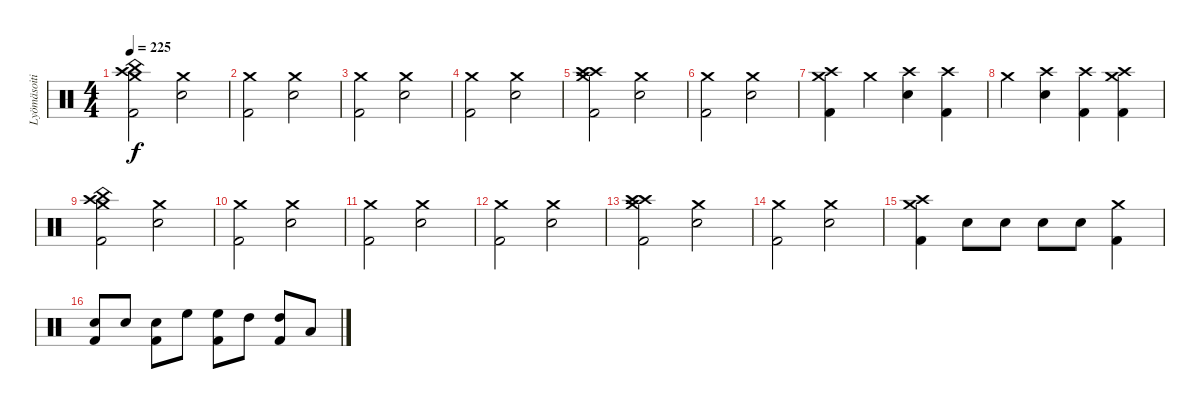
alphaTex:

\track ("Lyömäsoitin" "Lyömäsoiti") {instrument percussion}
\staff {score}
\articulation defaults
\ts (4 4)
\tempo 225
\clef neutral
\ks c
("Crash high (hit)" "China (hit)" "Crash medium (hit)" "Kick (hit) 2").2{dy f} ("Crash medium (hit)" "Snare (hit) 2").2 |
("Crash medium (hit)" "Kick (hit) 2").2 ("Crash medium (hit)" "Snare (hit) 2").2 |
("Crash medium (hit)" "Kick (hit) 2").2 ("Crash medium (hit)" "Snare (hit) 2").2 |
("Crash medium (hit)" "Kick (hit) 2").2 ("Crash medium (hit)" "Snare (hit) 2").2 |
("Crash high (hit)" "Crash high (hit)" "Crash medium (hit)" "Kick (hit) 2").2 ("Crash medium (hit)" "Snare (hit) 2").2 |
("Crash medium (hit)" "Kick (hit) 2").2 ("Crash medium (hit)" "Snare (hit) 2").2 |
("Crash high (hit)" "Crash medium (hit)" "Kick (hit) 2").4 "Crash medium (hit)".4 ("Crash high (hit)" "Snare (hit) 2").4 ("Crash high (hit)" "Kick (hit) 2").4 |
"Crash medium (hit)".4 ("Crash high (hit)" "Snare (hit) 2").4 ("Crash high (hit)" "Kick (hit) 2").4 ("Crash high (hit)" "Crash medium (hit)" "Kick (hit) 2").4 |
("Crash high (hit)" "China (hit)" "Crash medium (hit)" "Kick (hit) 2").2 ("Crash medium (hit)" "Snare (hit) 2").2 |
("Crash medium (hit)" "Kick (hit) 2").2 ("Crash medium (hit)" "Snare (hit) 2").2 |
("Crash medium (hit)" "Kick (hit) 2").2 ("Crash medium (hit)" "Snare (hit) 2").2 |
("Crash medium (hit)" "Kick (hit) 2").2 ("Crash medium (hit)" "Snare (hit) 2").2 |
("Crash high (hit)" "Crash high (hit)" "Crash medium (hit)" "Kick (hit) 2").2 ("Crash medium (hit)" "Snare (hit) 2").2 |
("Crash medium (hit)" "Kick (hit) 2").2 ("Crash medium (hit)" "Snare (hit) 2").2 |
("Crash high (hit)" "Crash medium (hit)" "Kick (hit) 2").4 "Snare (hit) 2".8 "Snare (hit) 2".8 "Snare (hit) 2".8 "Snare (hit) 2".8 ("Crash medium (hit)" "Kick (hit) 2").4 |
("Snare (hit) 2" "Kick (hit) 2").8 "Snare (hit) 2".8 ("Snare (hit) 2" "Kick (hit) 2").8 "High Floor Tom (hit)".8 ("High Floor Tom (hit)" "Kick (hit) 2").8 "High Tom (hit)".8 ("High Tom (hit)" "Kick (hit) 2").8 "Low Tom (hit)".8
